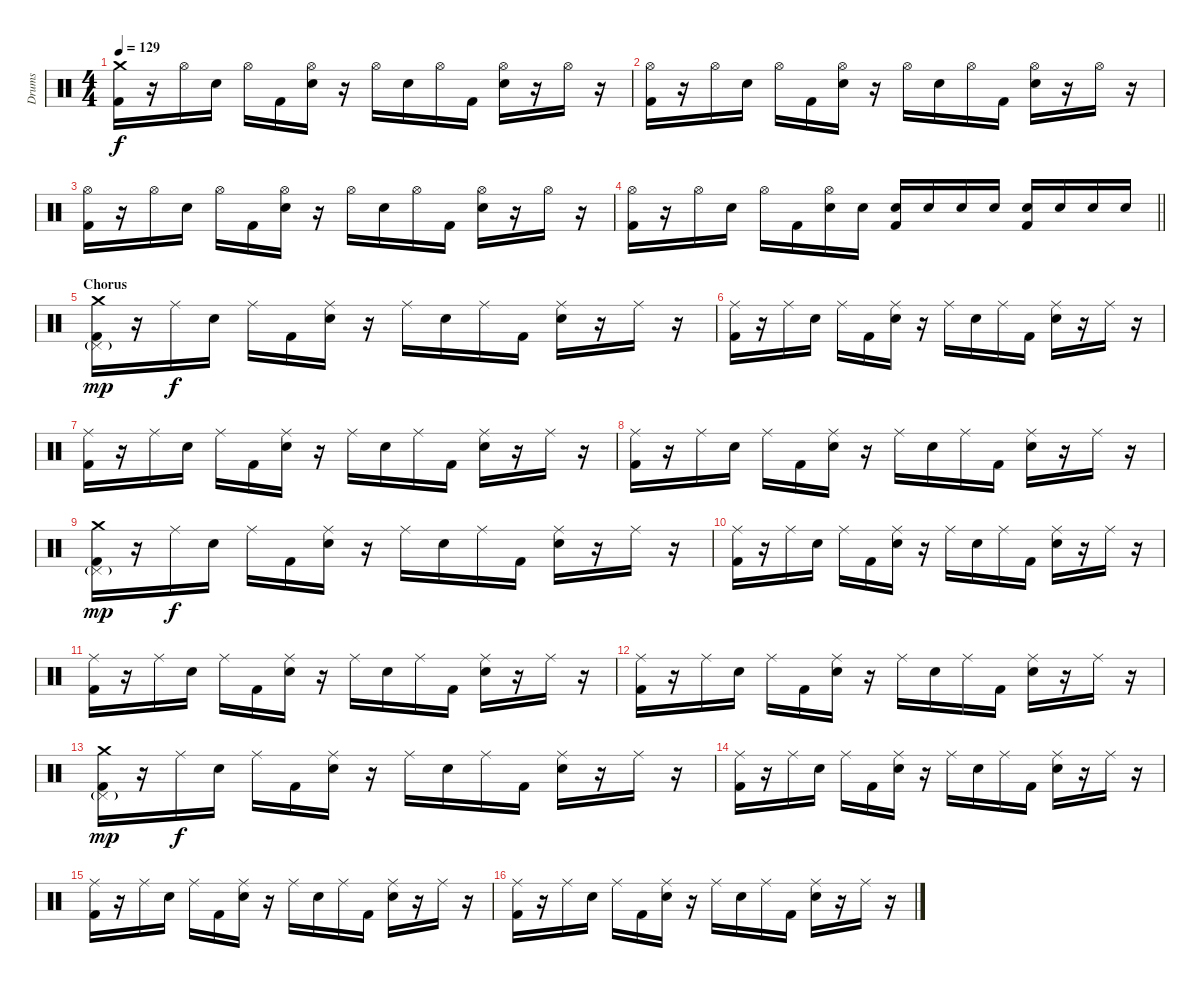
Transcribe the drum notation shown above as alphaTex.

\track ("Drums" "Drums") {instrument percussion}
\staff {score}
\articulation defaults
\ts (4 4)
\tempo 129
\clef neutral
\ks c
("Crash medium (hit)" "Kick (hit) 2").16{dy f} r.16 "Hi-Hat (open)".16 "Electric Snare (hit)".16 "Hi-Hat (open)".16 "Kick (hit) 2".16 ("Hi-Hat (open)" "Electric Snare (hit)").16 r.16 "Hi-Hat (open)".16 "Electric Snare (hit)".16 "Hi-Hat (open)".16 "Kick (hit) 2".16 ("Hi-Hat (open)" "Electric Snare (hit)").16 r.16 "Hi-Hat (open)".16 r.16 |
("Hi-Hat (open)" "Kick (hit) 2").16 r.16 "Hi-Hat (open)".16 "Electric Snare (hit)".16 "Hi-Hat (open)".16 "Kick (hit) 2".16 ("Hi-Hat (open)" "Electric Snare (hit)").16 r.16 "Hi-Hat (open)".16 "Electric Snare (hit)".16 "Hi-Hat (open)".16 "Kick (hit) 2".16 ("Hi-Hat (open)" "Electric Snare (hit)").16 r.16 "Hi-Hat (open)".16 r.16 |
("Hi-Hat (open)" "Kick (hit) 2").16 r.16 "Hi-Hat (open)".16 "Electric Snare (hit)".16 "Hi-Hat (open)".16 "Kick (hit) 2".16 ("Hi-Hat (open)" "Electric Snare (hit)").16 r.16 "Hi-Hat (open)".16 "Electric Snare (hit)".16 "Hi-Hat (open)".16 "Kick (hit) 2".16 ("Hi-Hat (open)" "Electric Snare (hit)").16 r.16 "Hi-Hat (open)".16 r.16 |
\barLineRight lightlight
("Hi-Hat (open)" "Kick (hit) 2").16 r.16 "Hi-Hat (open)".16 "Electric Snare (hit)".16 "Hi-Hat (open)".16 "Kick (hit) 2".16 ("Hi-Hat (open)" "Electric Snare (hit)").16 "Electric Snare (hit)".16 ("Electric Snare (hit)" "Kick (hit) 2").16 "Electric Snare (hit)".16 "Electric Snare (hit)".16 "Electric Snare (hit)".16 ("Electric Snare (hit)" "Kick (hit) 2").16 "Electric Snare (hit)".16 "Electric Snare (hit)".16 "Electric Snare (hit)".16 |
\section ("" "Chorus")
("Crash medium (hit)" "Pedal Hi-Hat (hit)"{g} "Kick (hit) 2").16{dy mp} r.16 "Ride (middle)".16{dy f} "Electric Snare (hit)".16 "Ride (middle)".16 "Kick (hit) 2".16 ("Ride (middle)" "Electric Snare (hit)").16 r.16 "Ride (middle)".16 "Electric Snare (hit)".16 "Ride (middle)".16 "Kick (hit) 2".16 ("Ride (middle)" "Electric Snare (hit)").16 r.16 "Ride (middle)".16 r.16 |
("Ride (middle)" "Kick (hit) 2").16 r.16 "Ride (middle)".16 "Electric Snare (hit)".16 "Ride (middle)".16 "Kick (hit) 2".16 ("Ride (middle)" "Electric Snare (hit)").16 r.16 "Ride (middle)".16 "Electric Snare (hit)".16 "Ride (middle)".16 "Kick (hit) 2".16 ("Ride (middle)" "Electric Snare (hit)").16 r.16 "Ride (middle)".16 r.16 |
("Ride (middle)" "Kick (hit) 2").16 r.16 "Ride (middle)".16 "Electric Snare (hit)".16 "Ride (middle)".16 "Kick (hit) 2".16 ("Ride (middle)" "Electric Snare (hit)").16 r.16 "Ride (middle)".16 "Electric Snare (hit)".16 "Ride (middle)".16 "Kick (hit) 2".16 ("Ride (middle)" "Electric Snare (hit)").16 r.16 "Ride (middle)".16 r.16 |
("Ride (middle)" "Kick (hit) 2").16 r.16 "Ride (middle)".16 "Electric Snare (hit)".16 "Ride (middle)".16 "Kick (hit) 2".16 ("Ride (middle)" "Electric Snare (hit)").16 r.16 "Ride (middle)".16 "Electric Snare (hit)".16 "Ride (middle)".16 "Kick (hit) 2".16 ("Ride (middle)" "Electric Snare (hit)").16 r.16 "Ride (middle)".16 r.16 |
("Crash medium (hit)" "Pedal Hi-Hat (hit)"{g} "Kick (hit) 2").16{dy mp} r.16 "Ride (middle)".16{dy f} "Electric Snare (hit)".16 "Ride (middle)".16 "Kick (hit) 2".16 ("Ride (middle)" "Electric Snare (hit)").16 r.16 "Ride (middle)".16 "Electric Snare (hit)".16 "Ride (middle)".16 "Kick (hit) 2".16 ("Ride (middle)" "Electric Snare (hit)").16 r.16 "Ride (middle)".16 r.16 |
("Ride (middle)" "Kick (hit) 2").16 r.16 "Ride (middle)".16 "Electric Snare (hit)".16 "Ride (middle)".16 "Kick (hit) 2".16 ("Ride (middle)" "Electric Snare (hit)").16 r.16 "Ride (middle)".16 "Electric Snare (hit)".16 "Ride (middle)".16 "Kick (hit) 2".16 ("Ride (middle)" "Electric Snare (hit)").16 r.16 "Ride (middle)".16 r.16 |
("Ride (middle)" "Kick (hit) 2").16 r.16 "Ride (middle)".16 "Electric Snare (hit)".16 "Ride (middle)".16 "Kick (hit) 2".16 ("Ride (middle)" "Electric Snare (hit)").16 r.16 "Ride (middle)".16 "Electric Snare (hit)".16 "Ride (middle)".16 "Kick (hit) 2".16 ("Ride (middle)" "Electric Snare (hit)").16 r.16 "Ride (middle)".16 r.16 |
("Ride (middle)" "Kick (hit) 2").16 r.16 "Ride (middle)".16 "Electric Snare (hit)".16 "Ride (middle)".16 "Kick (hit) 2".16 ("Ride (middle)" "Electric Snare (hit)").16 r.16 "Ride (middle)".16 "Electric Snare (hit)".16 "Ride (middle)".16 "Kick (hit) 2".16 ("Ride (middle)" "Electric Snare (hit)").16 r.16 "Ride (middle)".16 r.16 |
("Crash medium (hit)" "Pedal Hi-Hat (hit)"{g} "Kick (hit) 2").16{dy mp} r.16 "Ride (middle)".16{dy f} "Electric Snare (hit)".16 "Ride (middle)".16 "Kick (hit) 2".16 ("Ride (middle)" "Electric Snare (hit)").16 r.16 "Ride (middle)".16 "Electric Snare (hit)".16 "Ride (middle)".16 "Kick (hit) 2".16 ("Ride (middle)" "Electric Snare (hit)").16 r.16 "Ride (middle)".16 r.16 |
("Ride (middle)" "Kick (hit) 2").16 r.16 "Ride (middle)".16 "Electric Snare (hit)".16 "Ride (middle)".16 "Kick (hit) 2".16 ("Ride (middle)" "Electric Snare (hit)").16 r.16 "Ride (middle)".16 "Electric Snare (hit)".16 "Ride (middle)".16 "Kick (hit) 2".16 ("Ride (middle)" "Electric Snare (hit)").16 r.16 "Ride (middle)".16 r.16 |
("Ride (middle)" "Kick (hit) 2").16 r.16 "Ride (middle)".16 "Electric Snare (hit)".16 "Ride (middle)".16 "Kick (hit) 2".16 ("Ride (middle)" "Electric Snare (hit)").16 r.16 "Ride (middle)".16 "Electric Snare (hit)".16 "Ride (middle)".16 "Kick (hit) 2".16 ("Ride (middle)" "Electric Snare (hit)").16 r.16 "Ride (middle)".16 r.16 |
("Ride (middle)" "Kick (hit) 2").16 r.16 "Ride (middle)".16 "Electric Snare (hit)".16 "Ride (middle)".16 "Kick (hit) 2".16 ("Ride (middle)" "Electric Snare (hit)").16 r.16 "Ride (middle)".16 "Electric Snare (hit)".16 "Ride (middle)".16 "Kick (hit) 2".16 ("Ride (middle)" "Electric Snare (hit)").16 r.16 "Ride (middle)".16 r.16
